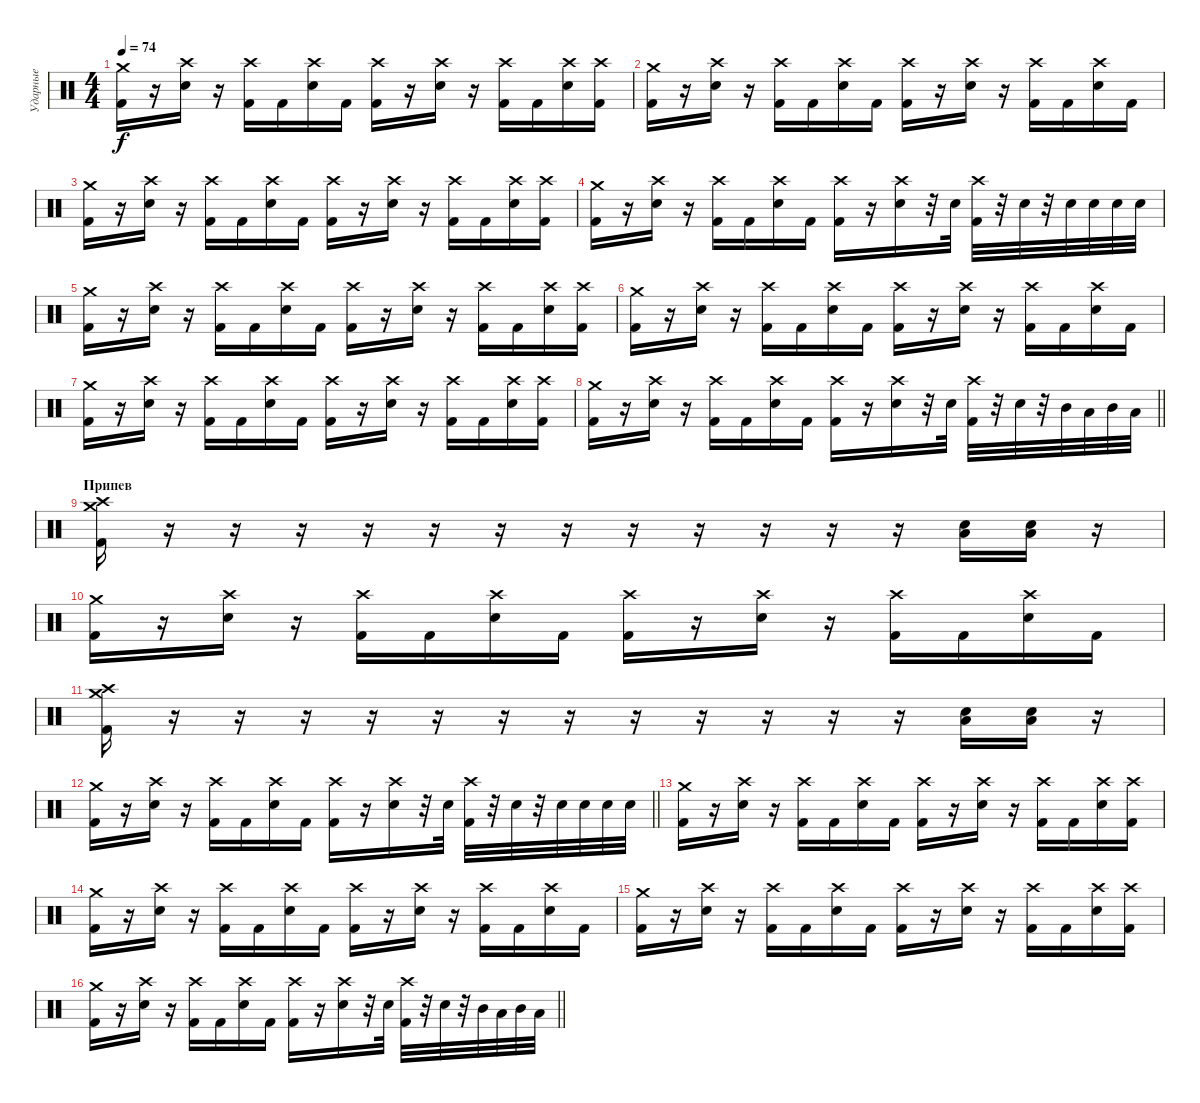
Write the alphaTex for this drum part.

\track ("Ударные" "Ударные") {instrument percussion}
\staff {score}
\articulation defaults
\ts (4 4)
\tempo 74
\clef neutral
\ks c
("Crash medium (hit)" "Kick (hit) 2").16{dy f} r.16 ("Crash high (hit)" "Electric Snare (hit)").16 r.16 ("Crash high (hit)" "Kick (hit) 2").16 "Kick (hit) 2".16 ("Crash high (hit)" "Electric Snare (hit)").16 "Kick (hit) 2".16 ("Crash high (hit)" "Kick (hit) 2").16 r.16 ("Crash high (hit)" "Electric Snare (hit)").16 r.16 ("Crash high (hit)" "Kick (hit) 2").16 "Kick (hit) 2".16 ("Crash high (hit)" "Electric Snare (hit)").16 ("Crash high (hit)" "Kick (hit) 2").16 |
("Crash medium (hit)" "Kick (hit) 2").16 r.16 ("Crash high (hit)" "Electric Snare (hit)").16 r.16 ("Crash high (hit)" "Kick (hit) 2").16 "Kick (hit) 2".16 ("Crash high (hit)" "Electric Snare (hit)").16 "Kick (hit) 2".16 ("Crash high (hit)" "Kick (hit) 2").16 r.16 ("Crash high (hit)" "Electric Snare (hit)").16 r.16 ("Crash high (hit)" "Kick (hit) 2").16 "Kick (hit) 2".16 ("Crash high (hit)" "Electric Snare (hit)").16 "Kick (hit) 2".16 |
("Crash medium (hit)" "Kick (hit) 2").16 r.16 ("Crash high (hit)" "Electric Snare (hit)").16 r.16 ("Crash high (hit)" "Kick (hit) 2").16 "Kick (hit) 2".16 ("Crash high (hit)" "Electric Snare (hit)").16 "Kick (hit) 2".16 ("Crash high (hit)" "Kick (hit) 2").16 r.16 ("Crash high (hit)" "Electric Snare (hit)").16 r.16 ("Crash high (hit)" "Kick (hit) 2").16 "Kick (hit) 2".16 ("Crash high (hit)" "Electric Snare (hit)").16 ("Crash high (hit)" "Kick (hit) 2").16 |
("Crash medium (hit)" "Kick (hit) 2").16 r.16 ("Crash high (hit)" "Electric Snare (hit)").16 r.16 ("Crash high (hit)" "Kick (hit) 2").16 "Kick (hit) 2".16 ("Crash high (hit)" "Electric Snare (hit)").16 "Kick (hit) 2".16 ("Crash high (hit)" "Kick (hit) 2").16 r.16 ("Crash high (hit)" "Electric Snare (hit)").16 r.32 "Electric Snare (hit)".32 ("Crash high (hit)" "Kick (hit) 2").32 r.32 "Electric Snare (hit)".32 r.32 "Electric Snare (hit)".32 "Electric Snare (hit)".32 "Electric Snare (hit)".32 "Electric Snare (hit)".32 |
("Crash medium (hit)" "Kick (hit) 2").16 r.16 ("Crash high (hit)" "Electric Snare (hit)").16 r.16 ("Crash high (hit)" "Kick (hit) 2").16 "Kick (hit) 2".16 ("Crash high (hit)" "Electric Snare (hit)").16 "Kick (hit) 2".16 ("Crash high (hit)" "Kick (hit) 2").16 r.16 ("Crash high (hit)" "Electric Snare (hit)").16 r.16 ("Crash high (hit)" "Kick (hit) 2").16 "Kick (hit) 2".16 ("Crash high (hit)" "Electric Snare (hit)").16 ("Crash high (hit)" "Kick (hit) 2").16 |
("Crash medium (hit)" "Kick (hit) 2").16 r.16 ("Crash high (hit)" "Electric Snare (hit)").16 r.16 ("Crash high (hit)" "Kick (hit) 2").16 "Kick (hit) 2".16 ("Crash high (hit)" "Electric Snare (hit)").16 "Kick (hit) 2".16 ("Crash high (hit)" "Kick (hit) 2").16 r.16 ("Crash high (hit)" "Electric Snare (hit)").16 r.16 ("Crash high (hit)" "Kick (hit) 2").16 "Kick (hit) 2".16 ("Crash high (hit)" "Electric Snare (hit)").16 "Kick (hit) 2".16 |
("Crash medium (hit)" "Kick (hit) 2").16 r.16 ("Crash high (hit)" "Electric Snare (hit)").16 r.16 ("Crash high (hit)" "Kick (hit) 2").16 "Kick (hit) 2".16 ("Crash high (hit)" "Electric Snare (hit)").16 "Kick (hit) 2".16 ("Crash high (hit)" "Kick (hit) 2").16 r.16 ("Crash high (hit)" "Electric Snare (hit)").16 r.16 ("Crash high (hit)" "Kick (hit) 2").16 "Kick (hit) 2".16 ("Crash high (hit)" "Electric Snare (hit)").16 ("Crash high (hit)" "Kick (hit) 2").16 |
\barLineRight lightlight
("Crash medium (hit)" "Kick (hit) 2").16 r.16 ("Crash high (hit)" "Electric Snare (hit)").16 r.16 ("Crash high (hit)" "Kick (hit) 2").16 "Kick (hit) 2".16 ("Crash high (hit)" "Electric Snare (hit)").16 "Kick (hit) 2".16 ("Crash high (hit)" "Kick (hit) 2").16 r.16 ("Crash high (hit)" "Electric Snare (hit)").16 r.32 "Electric Snare (hit)".32 ("Crash high (hit)" "Kick (hit) 2").32 r.32 "Electric Snare (hit)".32 r.32 "Mid Tom (hit)".32 "Low Tom (hit)".32 "Mid Tom (hit)".32 "Low Tom (hit)".32 |
\section ("" "Припев")
("Crash high (hit)" "Crash medium (hit)" "Kick (hit) 2").16 r.16 r.16 r.16 r.16 r.16 r.16 r.16 r.16 r.16 r.16 r.16 r.16 ("Low Floor Tom (hit)" "Electric Snare (hit)").16 ("Low Floor Tom (hit)" "Electric Snare (hit)").16 r.16 |
("Crash medium (hit)" "Kick (hit) 2").16 r.16 ("Crash high (hit)" "Electric Snare (hit)").16 r.16 ("Crash high (hit)" "Kick (hit) 2").16 "Kick (hit) 2".16 ("Crash high (hit)" "Electric Snare (hit)").16 "Kick (hit) 2".16 ("Crash high (hit)" "Kick (hit) 2").16 r.16 ("Crash high (hit)" "Electric Snare (hit)").16 r.16 ("Crash high (hit)" "Kick (hit) 2").16 "Kick (hit) 2".16 ("Crash high (hit)" "Electric Snare (hit)").16 "Kick (hit) 2".16 |
("Crash high (hit)" "Crash medium (hit)" "Kick (hit) 2").16 r.16 r.16 r.16 r.16 r.16 r.16 r.16 r.16 r.16 r.16 r.16 r.16 ("Low Floor Tom (hit)" "Electric Snare (hit)").16 ("Low Floor Tom (hit)" "Electric Snare (hit)").16 r.16 |
\barLineRight lightlight
("Crash medium (hit)" "Kick (hit) 2").16 r.16 ("Crash high (hit)" "Electric Snare (hit)").16 r.16 ("Crash high (hit)" "Kick (hit) 2").16 "Kick (hit) 2".16 ("Crash high (hit)" "Electric Snare (hit)").16 "Kick (hit) 2".16 ("Crash high (hit)" "Kick (hit) 2").16 r.16 ("Crash high (hit)" "Electric Snare (hit)").16 r.32 "Electric Snare (hit)".32 ("Crash high (hit)" "Kick (hit) 2").32 r.32 "Electric Snare (hit)".32 r.32 "Electric Snare (hit)".32 "Electric Snare (hit)".32 "Electric Snare (hit)".32 "Electric Snare (hit)".32 |
("Crash medium (hit)" "Kick (hit) 2").16 r.16 ("Crash high (hit)" "Electric Snare (hit)").16 r.16 ("Crash high (hit)" "Kick (hit) 2").16 "Kick (hit) 2".16 ("Crash high (hit)" "Electric Snare (hit)").16 "Kick (hit) 2".16 ("Crash high (hit)" "Kick (hit) 2").16 r.16 ("Crash high (hit)" "Electric Snare (hit)").16 r.16 ("Crash high (hit)" "Kick (hit) 2").16 "Kick (hit) 2".16 ("Crash high (hit)" "Electric Snare (hit)").16 ("Crash high (hit)" "Kick (hit) 2").16 |
("Crash medium (hit)" "Kick (hit) 2").16 r.16 ("Crash high (hit)" "Electric Snare (hit)").16 r.16 ("Crash high (hit)" "Kick (hit) 2").16 "Kick (hit) 2".16 ("Crash high (hit)" "Electric Snare (hit)").16 "Kick (hit) 2".16 ("Crash high (hit)" "Kick (hit) 2").16 r.16 ("Crash high (hit)" "Electric Snare (hit)").16 r.16 ("Crash high (hit)" "Kick (hit) 2").16 "Kick (hit) 2".16 ("Crash high (hit)" "Electric Snare (hit)").16 "Kick (hit) 2".16 |
("Crash medium (hit)" "Kick (hit) 2").16 r.16 ("Crash high (hit)" "Electric Snare (hit)").16 r.16 ("Crash high (hit)" "Kick (hit) 2").16 "Kick (hit) 2".16 ("Crash high (hit)" "Electric Snare (hit)").16 "Kick (hit) 2".16 ("Crash high (hit)" "Kick (hit) 2").16 r.16 ("Crash high (hit)" "Electric Snare (hit)").16 r.16 ("Crash high (hit)" "Kick (hit) 2").16 "Kick (hit) 2".16 ("Crash high (hit)" "Electric Snare (hit)").16 ("Crash high (hit)" "Kick (hit) 2").16 |
\barLineRight lightlight
("Crash medium (hit)" "Kick (hit) 2").16 r.16 ("Crash high (hit)" "Electric Snare (hit)").16 r.16 ("Crash high (hit)" "Kick (hit) 2").16 "Kick (hit) 2".16 ("Crash high (hit)" "Electric Snare (hit)").16 "Kick (hit) 2".16 ("Crash high (hit)" "Kick (hit) 2").16 r.16 ("Crash high (hit)" "Electric Snare (hit)").16 r.32 "Electric Snare (hit)".32 ("Crash high (hit)" "Kick (hit) 2").32 r.32 "Electric Snare (hit)".32 r.32 "Mid Tom (hit)".32 "Low Tom (hit)".32 "Mid Tom (hit)".32 "Low Tom (hit)".32
